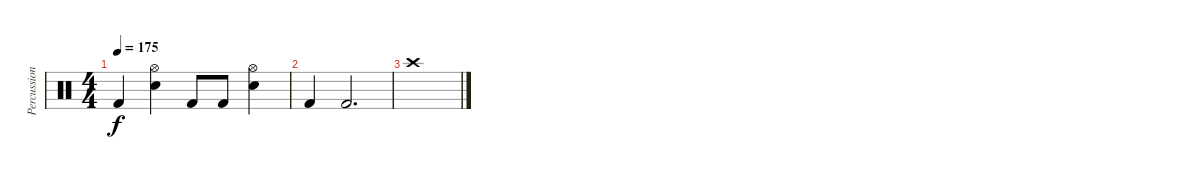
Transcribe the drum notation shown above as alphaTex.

\track ("Percussions" "Percussion") {instrument percussion}
\staff {score}
\articulation defaults
\ts (4 4)
\tempo 175
\clef neutral
\ks c "Kick (hit) 2".4{dy f}
("Hi-Hat (open)" "Electric Snare (hit)").4 "Kick (hit) 2".8 "Kick (hit) 2".8 ("Hi-Hat (open)" "Electric Snare (hit)").4 |
"Kick (hit) 2".4 "Kick (hit) 2".2{d} |
"Crash high (hit)".1
